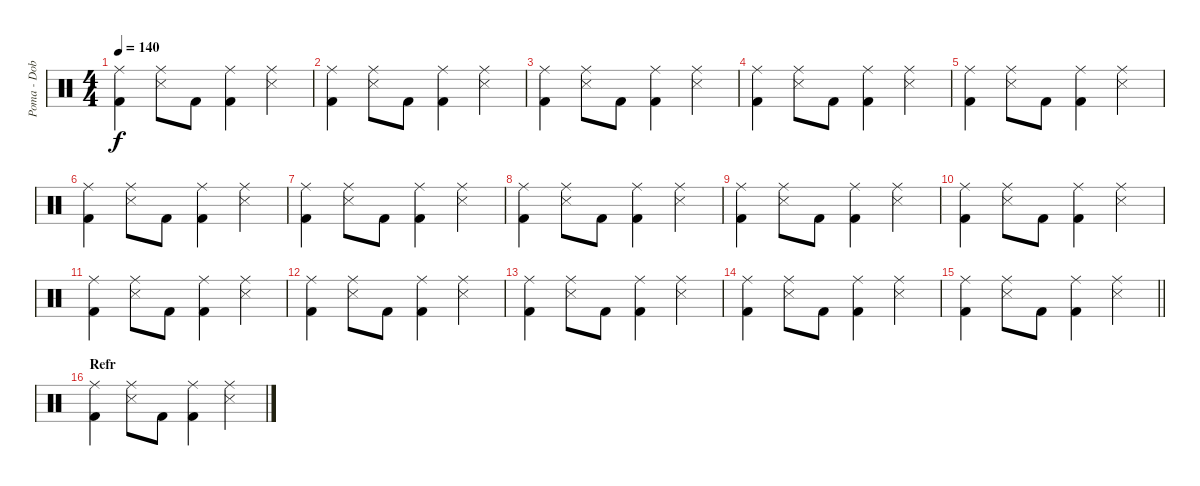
\track ("Poma - Dob" "Poma - Dob") {instrument percussion}
\staff {score}
\articulation defaults
\ts (4 4)
\tempo 140
\clef neutral
\ks c
("Ride (middle)" "Kick (hit) 2").4{dy f} ("Ride (middle)" "Snare (side stick) 3").8 "Kick (hit) 2".8 ("Ride (middle)" "Kick (hit) 2").4 ("Ride (middle)" "Snare (side stick) 3").4 |
("Ride (middle)" "Kick (hit) 2").4 ("Ride (middle)" "Snare (side stick) 3").8 "Kick (hit) 2".8 ("Ride (middle)" "Kick (hit) 2").4 ("Ride (middle)" "Snare (side stick) 3").4 |
("Ride (middle)" "Kick (hit) 2").4 ("Ride (middle)" "Snare (side stick) 3").8 "Kick (hit) 2".8 ("Ride (middle)" "Kick (hit) 2").4 ("Ride (middle)" "Snare (side stick) 3").4 |
("Ride (middle)" "Kick (hit) 2").4 ("Ride (middle)" "Snare (side stick) 3").8 "Kick (hit) 2".8 ("Ride (middle)" "Kick (hit) 2").4 ("Ride (middle)" "Snare (side stick) 3").4 |
("Ride (middle)" "Kick (hit) 2").4 ("Ride (middle)" "Snare (side stick) 3").8 "Kick (hit) 2".8 ("Ride (middle)" "Kick (hit) 2").4 ("Ride (middle)" "Snare (side stick) 3").4 |
("Ride (middle)" "Kick (hit) 2").4 ("Ride (middle)" "Snare (side stick) 3").8 "Kick (hit) 2".8 ("Ride (middle)" "Kick (hit) 2").4 ("Ride (middle)" "Snare (side stick) 3").4 |
("Ride (middle)" "Kick (hit) 2").4 ("Ride (middle)" "Snare (side stick) 3").8 "Kick (hit) 2".8 ("Ride (middle)" "Kick (hit) 2").4 ("Ride (middle)" "Snare (side stick) 3").4 |
("Ride (middle)" "Kick (hit) 2").4 ("Ride (middle)" "Snare (side stick) 3").8 "Kick (hit) 2".8 ("Ride (middle)" "Kick (hit) 2").4 ("Ride (middle)" "Snare (side stick) 3").4 |
("Ride (middle)" "Kick (hit) 2").4 ("Ride (middle)" "Snare (side stick) 3").8 "Kick (hit) 2".8 ("Ride (middle)" "Kick (hit) 2").4 ("Ride (middle)" "Snare (side stick) 3").4 |
("Ride (middle)" "Kick (hit) 2").4 ("Ride (middle)" "Snare (side stick) 3").8 "Kick (hit) 2".8 ("Ride (middle)" "Kick (hit) 2").4 ("Ride (middle)" "Snare (side stick) 3").4 |
("Ride (middle)" "Kick (hit) 2").4 ("Ride (middle)" "Snare (side stick) 3").8 "Kick (hit) 2".8 ("Ride (middle)" "Kick (hit) 2").4 ("Ride (middle)" "Snare (side stick) 3").4 |
("Ride (middle)" "Kick (hit) 2").4 ("Ride (middle)" "Snare (side stick) 3").8 "Kick (hit) 2".8 ("Ride (middle)" "Kick (hit) 2").4 ("Ride (middle)" "Snare (side stick) 3").4 |
("Ride (middle)" "Kick (hit) 2").4 ("Ride (middle)" "Snare (side stick) 3").8 "Kick (hit) 2".8 ("Ride (middle)" "Kick (hit) 2").4 ("Ride (middle)" "Snare (side stick) 3").4 |
("Ride (middle)" "Kick (hit) 2").4 ("Ride (middle)" "Snare (side stick) 3").8 "Kick (hit) 2".8 ("Ride (middle)" "Kick (hit) 2").4 ("Ride (middle)" "Snare (side stick) 3").4 |
\barLineRight lightlight
("Ride (middle)" "Kick (hit) 2").4 ("Ride (middle)" "Snare (side stick) 3").8 "Kick (hit) 2".8 ("Ride (middle)" "Kick (hit) 2").4 ("Ride (middle)" "Snare (side stick) 3").4 |
\section ("" "Refr")
("Ride (middle)" "Kick (hit) 2").4 ("Ride (middle)" "Snare (side stick) 3").8 "Kick (hit) 2".8 ("Ride (middle)" "Kick (hit) 2").4 ("Ride (middle)" "Snare (side stick) 3").4
